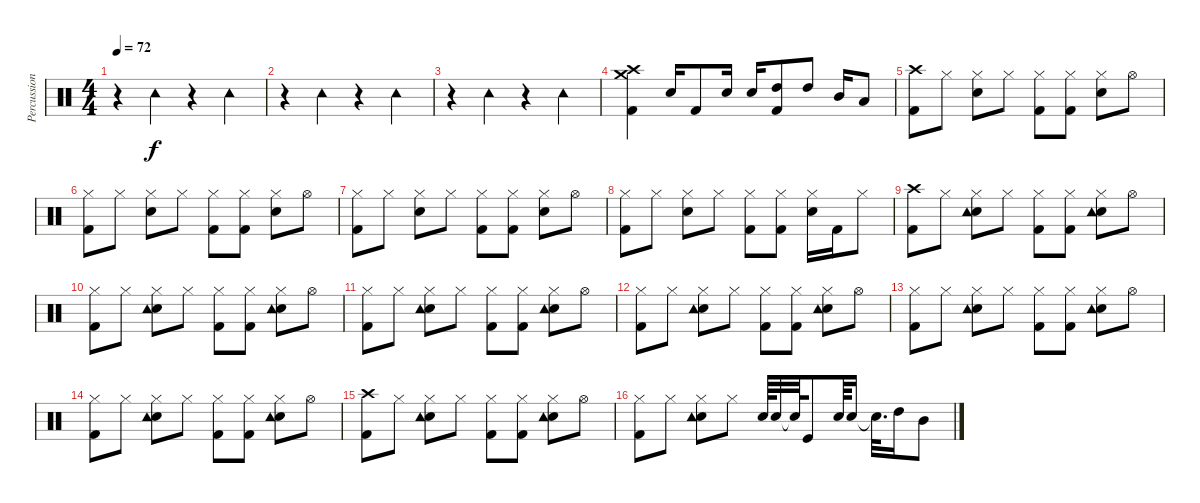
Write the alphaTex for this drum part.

\track ("Percussion" "Percussion") {instrument percussion}
\staff {score}
\articulation defaults
\ts (4 4)
\tempo 72
\clef neutral
\ks c
r.4{dy f} "Tambourine (hit)".4 r.4 "Tambourine (hit)".4 |
r.4 "Tambourine (hit)".4 r.4 "Tambourine (hit)".4 |
r.4 "Tambourine (hit)".4 r.4 "Tambourine (hit)".4 |
("Crash high (hit)" "Crash medium (hit)" "Kick (hit) 2").4 "Snare (hit) 2".16 "Kick (hit) 2".8 "Snare (hit) 2".16 "Snare (hit) 2".16 ("High Tom (hit)" "Kick (hit) 2").8 "High Tom (hit)".8 "Mid Tom (hit)".16 "Low Tom (hit)".8 |
("Crash high (hit)" "Kick (hit) 2").8 "Hi-Hat (closed)".8 ("Hi-Hat (closed)" "Snare (hit) 2").8 "Hi-Hat (closed)".8 ("Hi-Hat (closed)" "Kick (hit) 2").8 ("Hi-Hat (closed)" "Kick (hit) 2").8 ("Hi-Hat (closed)" "Snare (hit) 2").8 "Hi-Hat (open)".8 |
("Hi-Hat (closed)" "Kick (hit) 2").8 "Hi-Hat (closed)".8 ("Hi-Hat (closed)" "Snare (hit) 2").8 "Hi-Hat (closed)".8 ("Hi-Hat (closed)" "Kick (hit) 2").8 ("Hi-Hat (closed)" "Kick (hit) 2").8 ("Hi-Hat (closed)" "Snare (hit) 2").8 "Hi-Hat (open)".8 |
("Hi-Hat (closed)" "Kick (hit) 2").8 "Hi-Hat (closed)".8 ("Hi-Hat (closed)" "Snare (hit) 2").8 "Hi-Hat (closed)".8 ("Hi-Hat (closed)" "Kick (hit) 2").8 ("Hi-Hat (closed)" "Kick (hit) 2").8 ("Hi-Hat (closed)" "Snare (hit) 2").8 "Hi-Hat (open)".8 |
("Hi-Hat (closed)" "Kick (hit) 2").8 "Hi-Hat (closed)".8 ("Hi-Hat (closed)" "Snare (hit) 2").8 "Hi-Hat (closed)".8 ("Hi-Hat (closed)" "Kick (hit) 2").8 ("Hi-Hat (closed)" "Kick (hit) 2").8 ("Hi-Hat (closed)" "Snare (hit) 2").16 "Kick (hit) 2".16 "Hi-Hat (closed)".8 |
("Crash high (hit)" "Kick (hit) 2").8 "Hi-Hat (closed)".8 ("Hi-Hat (closed)" "Snare (hit) 2" "Tambourine (hit)").8 "Hi-Hat (closed)".8 ("Hi-Hat (closed)" "Kick (hit) 2").8 ("Hi-Hat (closed)" "Kick (hit) 2").8 ("Hi-Hat (closed)" "Snare (hit) 2" "Tambourine (hit)").8 "Hi-Hat (open)".8 |
("Hi-Hat (closed)" "Kick (hit) 2").8 "Hi-Hat (closed)".8 ("Hi-Hat (closed)" "Snare (hit) 2" "Tambourine (hit)").8 "Hi-Hat (closed)".8 ("Hi-Hat (closed)" "Kick (hit) 2").8 ("Hi-Hat (closed)" "Kick (hit) 2").8 ("Hi-Hat (closed)" "Snare (hit) 2" "Tambourine (hit)").8 "Hi-Hat (open)".8 |
("Hi-Hat (closed)" "Kick (hit) 2").8 "Hi-Hat (closed)".8 ("Hi-Hat (closed)" "Snare (hit) 2" "Tambourine (hit)").8 "Hi-Hat (closed)".8 ("Hi-Hat (closed)" "Kick (hit) 2").8 ("Hi-Hat (closed)" "Kick (hit) 2").8 ("Hi-Hat (closed)" "Snare (hit) 2" "Tambourine (hit)").8 "Hi-Hat (open)".8 |
("Hi-Hat (closed)" "Kick (hit) 2").8 "Hi-Hat (closed)".8 ("Hi-Hat (closed)" "Snare (hit) 2" "Tambourine (hit)").8 "Hi-Hat (closed)".8 ("Hi-Hat (closed)" "Kick (hit) 2").8 ("Hi-Hat (closed)" "Kick (hit) 2").8 ("Hi-Hat (closed)" "Snare (hit) 2" "Tambourine (hit)").8 "Hi-Hat (open)".8 |
("Hi-Hat (closed)" "Kick (hit) 2").8 "Hi-Hat (closed)".8 ("Hi-Hat (closed)" "Snare (hit) 2" "Tambourine (hit)").8 "Hi-Hat (closed)".8 ("Hi-Hat (closed)" "Kick (hit) 2").8 ("Hi-Hat (closed)" "Kick (hit) 2").8 ("Hi-Hat (closed)" "Snare (hit) 2" "Tambourine (hit)").8 "Hi-Hat (open)".8 |
("Hi-Hat (closed)" "Kick (hit) 2").8 "Hi-Hat (closed)".8 ("Hi-Hat (closed)" "Snare (hit) 2" "Tambourine (hit)").8 "Hi-Hat (closed)".8 ("Hi-Hat (closed)" "Kick (hit) 2").8 ("Hi-Hat (closed)" "Kick (hit) 2").8 ("Hi-Hat (closed)" "Snare (hit) 2" "Tambourine (hit)").8 "Hi-Hat (open)".8 |
("Crash high (hit)" "Kick (hit) 2").8 "Hi-Hat (closed)".8 ("Hi-Hat (closed)" "Snare (hit) 2" "Tambourine (hit)").8 "Hi-Hat (closed)".8 ("Hi-Hat (closed)" "Kick (hit) 2").8 ("Hi-Hat (closed)" "Kick (hit) 2").8 ("Hi-Hat (closed)" "Snare (hit) 2" "Tambourine (hit)").8 "Hi-Hat (open)".8 |
("Hi-Hat (closed)" "Kick (hit) 2").8 "Hi-Hat (closed)".8 ("Hi-Hat (closed)" "Snare (hit) 2" "Tambourine (hit)").8 "Hi-Hat (closed)".8 "Snare (hit) 2".64 "Snare (hit) 2".32 "Snare (hit)"{t}.64 "Kick (hit)".8 "Snare (hit) 2".64 "Snare (hit) 2".16 "Snare (hit)"{t}.32{d} "High Tom (hit)".16 "Mid Tom (hit)".8
